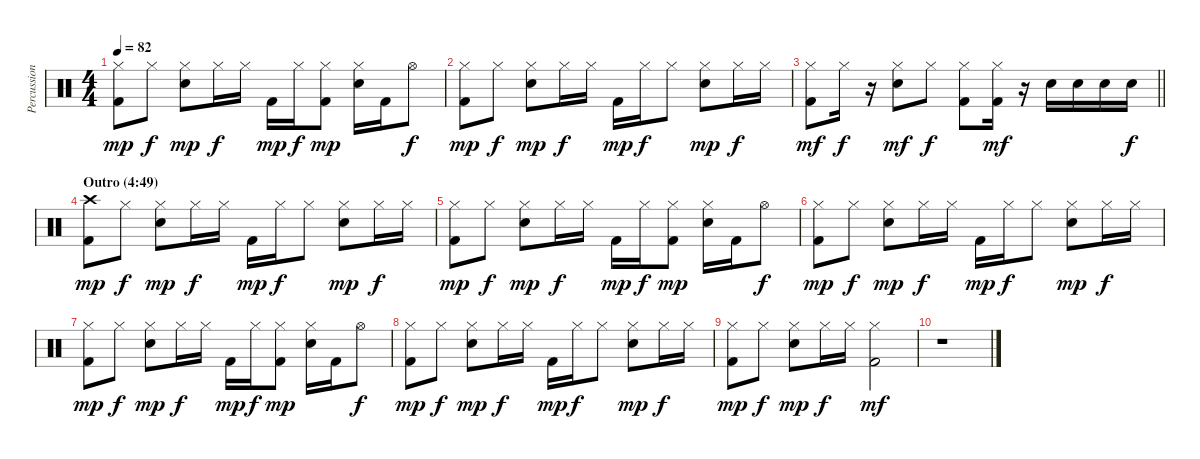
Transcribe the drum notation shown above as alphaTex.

\track ("Percussion" "Percussion") {instrument percussion}
\staff {score}
\articulation defaults
\ts (4 4)
\tempo 82
\clef neutral
\ks c
("Hi-Hat (closed)" "Kick (hit) 2").8{dy mp} "Hi-Hat (closed)".8{dy f} ("Hi-Hat (closed)" "Electric Snare (hit)").8{dy mp} "Hi-Hat (closed)".16{dy f} "Hi-Hat (closed)".16 "Kick (hit) 2".16{dy mp} "Hi-Hat (closed)".16{dy f} ("Hi-Hat (closed)" "Kick (hit) 2").8{dy mp} ("Hi-Hat (closed)" "Electric Snare (hit)").16 "Kick (hit) 2".16 "Hi-Hat (open)".8{dy f} |
("Hi-Hat (closed)" "Kick (hit) 2").8{dy mp} "Hi-Hat (closed)".8{dy f} ("Hi-Hat (closed)" "Electric Snare (hit)").8{dy mp} "Hi-Hat (closed)".16{dy f} "Hi-Hat (closed)".16 "Kick (hit) 2".16{dy mp} "Hi-Hat (closed)".16{dy f} "Hi-Hat (closed)".8 ("Hi-Hat (closed)" "Electric Snare (hit)").8{dy mp} "Hi-Hat (closed)".16{dy f} "Hi-Hat (closed)".16 |
\barLineRight lightlight
("Hi-Hat (closed)" "Kick (hit) 2").8{dy mf} "Hi-Hat (closed)".16{dy f} r.16 ("Hi-Hat (closed)" "Electric Snare (hit)").8{dy mf} "Hi-Hat (closed)".8{dy f} ("Hi-Hat (closed)" "Kick (hit) 2").8 ("Hi-Hat (closed)" "Kick (hit) 2").16{dy mf} r.16 "Electric Snare (hit)".16 "Snare (hit) 2".16 "Electric Snare (hit)".16 "Electric Snare (hit)".16{dy f} |
\section ("" "Outro (4:49)")
("Crash high (hit)" "Kick (hit) 2").8{dy mp} "Hi-Hat (closed)".8{dy f} ("Hi-Hat (closed)" "Electric Snare (hit)").8{dy mp} "Hi-Hat (closed)".16{dy f} "Hi-Hat (closed)".16 "Kick (hit) 2".16{dy mp} "Hi-Hat (closed)".16{dy f} "Hi-Hat (closed)".8 ("Hi-Hat (closed)" "Electric Snare (hit)").8{dy mp} "Hi-Hat (closed)".16{dy f} "Hi-Hat (closed)".16 |
("Hi-Hat (closed)" "Kick (hit) 2").8{dy mp} "Hi-Hat (closed)".8{dy f} ("Hi-Hat (closed)" "Electric Snare (hit)").8{dy mp} "Hi-Hat (closed)".16{dy f} "Hi-Hat (closed)".16 "Kick (hit) 2".16{dy mp} "Hi-Hat (closed)".16{dy f} ("Hi-Hat (closed)" "Kick (hit) 2").8{dy mp} ("Hi-Hat (closed)" "Electric Snare (hit)").16 "Kick (hit) 2".16 "Hi-Hat (open)".8{dy f} |
("Hi-Hat (closed)" "Kick (hit) 2").8{dy mp} "Hi-Hat (closed)".8{dy f} ("Hi-Hat (closed)" "Electric Snare (hit)").8{dy mp} "Hi-Hat (closed)".16{dy f} "Hi-Hat (closed)".16 "Kick (hit) 2".16{dy mp} "Hi-Hat (closed)".16{dy f} "Hi-Hat (closed)".8 ("Hi-Hat (closed)" "Electric Snare (hit)").8{dy mp} "Hi-Hat (closed)".16{dy f} "Hi-Hat (closed)".16 |
("Hi-Hat (closed)" "Kick (hit) 2").8{dy mp} "Hi-Hat (closed)".8{dy f} ("Hi-Hat (closed)" "Electric Snare (hit)").8{dy mp} "Hi-Hat (closed)".16{dy f} "Hi-Hat (closed)".16 "Kick (hit) 2".16{dy mp} "Hi-Hat (closed)".16{dy f} ("Hi-Hat (closed)" "Kick (hit) 2").8{dy mp} ("Hi-Hat (closed)" "Electric Snare (hit)").16 "Kick (hit) 2".16 "Hi-Hat (open)".8{dy f} |
("Hi-Hat (closed)" "Kick (hit) 2").8{dy mp volume 0} "Hi-Hat (closed)".8{dy f} ("Hi-Hat (closed)" "Electric Snare (hit)").8{dy mp} "Hi-Hat (closed)".16{dy f} "Hi-Hat (closed)".16 "Kick (hit) 2".16{dy mp} "Hi-Hat (closed)".16{dy f} "Hi-Hat (closed)".8 ("Hi-Hat (closed)" "Electric Snare (hit)").8{dy mp} "Hi-Hat (closed)".16{dy f} "Hi-Hat (closed)".16 |
("Hi-Hat (closed)" "Kick (hit) 2").8{dy mp} "Hi-Hat (closed)".8{dy f} ("Hi-Hat (closed)" "Electric Snare (hit)").8{dy mp} "Hi-Hat (closed)".16{dy f} "Hi-Hat (closed)".16 ("Hi-Hat (closed)" "Kick (hit) 2").2{dy mf} |
r.1
